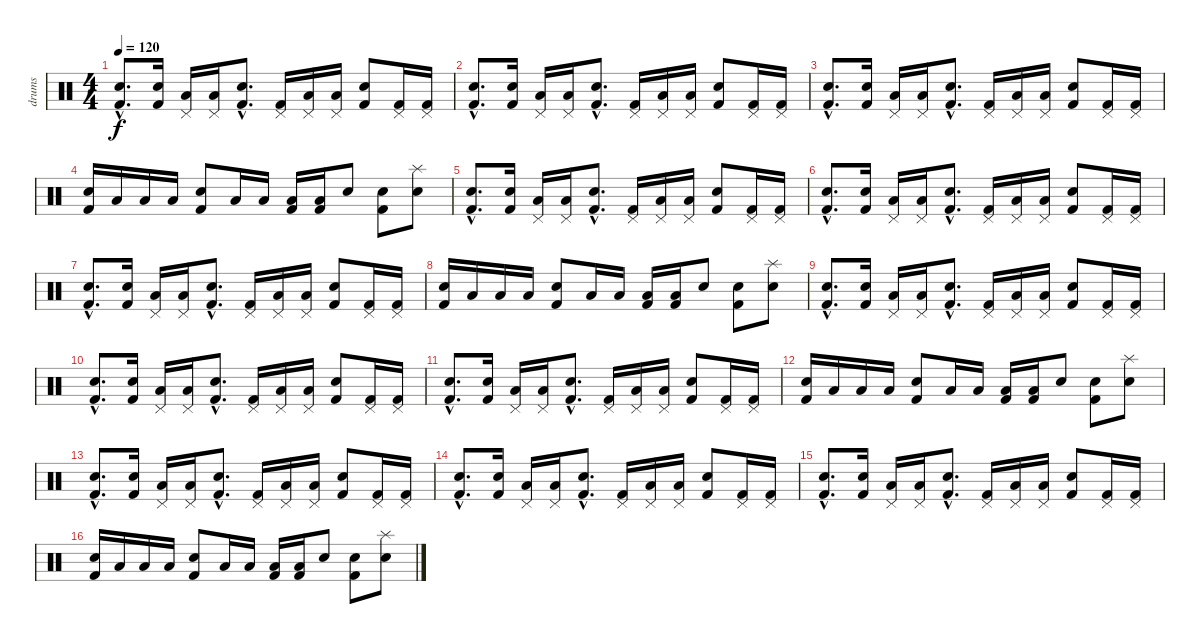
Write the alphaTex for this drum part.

\track ("drums" "drums") {instrument percussion}
\staff {score}
\articulation defaults
\ts (4 4)
\tempo 120
\clef neutral
\ks c
("Electric Snare (hit)"{hac} "Kick (hit) 2"{hac}).8{d dy f} ("Electric Snare (hit)" "Kick (hit) 2").16 ("Pedal Hi-Hat (hit)" "Low Tom (hit)").16 ("Pedal Hi-Hat (hit)" "Low Tom (hit)").16 ("Electric Snare (hit)"{hac} "Kick (hit) 2"{hac}).8{d} ("Pedal Hi-Hat (hit)" "Kick (hit) 2").16 ("Pedal Hi-Hat (hit)" "Low Tom (hit)").16 ("Pedal Hi-Hat (hit)" "Low Tom (hit)").16 ("Electric Snare (hit)" "Kick (hit) 2").8 ("Pedal Hi-Hat (hit)" "Kick (hit) 2").16 ("Pedal Hi-Hat (hit)" "Kick (hit) 2").16 |
("Electric Snare (hit)"{hac} "Kick (hit) 2"{hac}).8{d} ("Electric Snare (hit)" "Kick (hit) 2").16 ("Pedal Hi-Hat (hit)" "Low Tom (hit)").16 ("Pedal Hi-Hat (hit)" "Low Tom (hit)").16 ("Electric Snare (hit)"{hac} "Kick (hit) 2"{hac}).8{d} ("Pedal Hi-Hat (hit)" "Kick (hit) 2").16 ("Pedal Hi-Hat (hit)" "Low Tom (hit)").16 ("Pedal Hi-Hat (hit)" "Low Tom (hit)").16 ("Electric Snare (hit)" "Kick (hit) 2").8 ("Pedal Hi-Hat (hit)" "Kick (hit) 2").16 ("Pedal Hi-Hat (hit)" "Kick (hit) 2").16 |
("Electric Snare (hit)"{hac} "Kick (hit) 2"{hac}).8{d} ("Electric Snare (hit)" "Kick (hit) 2").16 ("Pedal Hi-Hat (hit)" "Low Tom (hit)").16 ("Pedal Hi-Hat (hit)" "Low Tom (hit)").16 ("Electric Snare (hit)"{hac} "Kick (hit) 2"{hac}).8{d} ("Pedal Hi-Hat (hit)" "Kick (hit) 2").16 ("Pedal Hi-Hat (hit)" "Low Tom (hit)").16 ("Pedal Hi-Hat (hit)" "Low Tom (hit)").16 ("Electric Snare (hit)" "Kick (hit) 2").8 ("Pedal Hi-Hat (hit)" "Kick (hit) 2").16 ("Pedal Hi-Hat (hit)" "Kick (hit) 2").16 |
("Electric Snare (hit)" "Kick (hit) 2").16 "Low Tom (hit)".16 "Low Tom (hit)".16 "Low Tom (hit)".16 ("Electric Snare (hit)" "Kick (hit) 2").8 "Low Tom (hit)".16 "Low Tom (hit)".16 ("Low Tom (hit)" "Kick (hit) 2").16 ("Low Tom (hit)" "Kick (hit) 2").16 "Electric Snare (hit)".8 ("Electric Snare (hit)" "Kick (hit) 2").8 ("Splash (hit)" "Electric Snare (hit)").8 |
("Electric Snare (hit)"{hac} "Kick (hit) 2"{hac}).8{d} ("Electric Snare (hit)" "Kick (hit) 2").16 ("Pedal Hi-Hat (hit)" "Low Tom (hit)").16 ("Pedal Hi-Hat (hit)" "Low Tom (hit)").16 ("Electric Snare (hit)"{hac} "Kick (hit) 2"{hac}).8{d} ("Pedal Hi-Hat (hit)" "Kick (hit) 2").16 ("Pedal Hi-Hat (hit)" "Low Tom (hit)").16 ("Pedal Hi-Hat (hit)" "Low Tom (hit)").16 ("Electric Snare (hit)" "Kick (hit) 2").8 ("Pedal Hi-Hat (hit)" "Kick (hit) 2").16 ("Pedal Hi-Hat (hit)" "Kick (hit) 2").16 |
("Electric Snare (hit)"{hac} "Kick (hit) 2"{hac}).8{d} ("Electric Snare (hit)" "Kick (hit) 2").16 ("Pedal Hi-Hat (hit)" "Low Tom (hit)").16 ("Pedal Hi-Hat (hit)" "Low Tom (hit)").16 ("Electric Snare (hit)"{hac} "Kick (hit) 2"{hac}).8{d} ("Pedal Hi-Hat (hit)" "Kick (hit) 2").16 ("Pedal Hi-Hat (hit)" "Low Tom (hit)").16 ("Pedal Hi-Hat (hit)" "Low Tom (hit)").16 ("Electric Snare (hit)" "Kick (hit) 2").8 ("Pedal Hi-Hat (hit)" "Kick (hit) 2").16 ("Pedal Hi-Hat (hit)" "Kick (hit) 2").16 |
("Electric Snare (hit)"{hac} "Kick (hit) 2"{hac}).8{d} ("Electric Snare (hit)" "Kick (hit) 2").16 ("Pedal Hi-Hat (hit)" "Low Tom (hit)").16 ("Pedal Hi-Hat (hit)" "Low Tom (hit)").16 ("Electric Snare (hit)"{hac} "Kick (hit) 2"{hac}).8{d} ("Pedal Hi-Hat (hit)" "Kick (hit) 2").16 ("Pedal Hi-Hat (hit)" "Low Tom (hit)").16 ("Pedal Hi-Hat (hit)" "Low Tom (hit)").16 ("Electric Snare (hit)" "Kick (hit) 2").8 ("Pedal Hi-Hat (hit)" "Kick (hit) 2").16 ("Pedal Hi-Hat (hit)" "Kick (hit) 2").16 |
("Electric Snare (hit)" "Kick (hit) 2").16 "Low Tom (hit)".16 "Low Tom (hit)".16 "Low Tom (hit)".16 ("Electric Snare (hit)" "Kick (hit) 2").8 "Low Tom (hit)".16 "Low Tom (hit)".16 ("Low Tom (hit)" "Kick (hit) 2").16 ("Low Tom (hit)" "Kick (hit) 2").16 "Electric Snare (hit)".8 ("Electric Snare (hit)" "Kick (hit) 2").8 ("Splash (hit)" "Electric Snare (hit)").8 |
("Electric Snare (hit)"{hac} "Kick (hit) 2"{hac}).8{d} ("Electric Snare (hit)" "Kick (hit) 2").16 ("Pedal Hi-Hat (hit)" "Low Tom (hit)").16 ("Pedal Hi-Hat (hit)" "Low Tom (hit)").16 ("Electric Snare (hit)"{hac} "Kick (hit) 2"{hac}).8{d} ("Pedal Hi-Hat (hit)" "Kick (hit) 2").16 ("Pedal Hi-Hat (hit)" "Low Tom (hit)").16 ("Pedal Hi-Hat (hit)" "Low Tom (hit)").16 ("Electric Snare (hit)" "Kick (hit) 2").8 ("Pedal Hi-Hat (hit)" "Kick (hit) 2").16 ("Pedal Hi-Hat (hit)" "Kick (hit) 2").16 |
("Electric Snare (hit)"{hac} "Kick (hit) 2"{hac}).8{d} ("Electric Snare (hit)" "Kick (hit) 2").16 ("Pedal Hi-Hat (hit)" "Low Tom (hit)").16 ("Pedal Hi-Hat (hit)" "Low Tom (hit)").16 ("Electric Snare (hit)"{hac} "Kick (hit) 2"{hac}).8{d} ("Pedal Hi-Hat (hit)" "Kick (hit) 2").16 ("Pedal Hi-Hat (hit)" "Low Tom (hit)").16 ("Pedal Hi-Hat (hit)" "Low Tom (hit)").16 ("Electric Snare (hit)" "Kick (hit) 2").8 ("Pedal Hi-Hat (hit)" "Kick (hit) 2").16 ("Pedal Hi-Hat (hit)" "Kick (hit) 2").16 |
("Electric Snare (hit)"{hac} "Kick (hit) 2"{hac}).8{d} ("Electric Snare (hit)" "Kick (hit) 2").16 ("Pedal Hi-Hat (hit)" "Low Tom (hit)").16 ("Pedal Hi-Hat (hit)" "Low Tom (hit)").16 ("Electric Snare (hit)"{hac} "Kick (hit) 2"{hac}).8{d} ("Pedal Hi-Hat (hit)" "Kick (hit) 2").16 ("Pedal Hi-Hat (hit)" "Low Tom (hit)").16 ("Pedal Hi-Hat (hit)" "Low Tom (hit)").16 ("Electric Snare (hit)" "Kick (hit) 2").8 ("Pedal Hi-Hat (hit)" "Kick (hit) 2").16 ("Pedal Hi-Hat (hit)" "Kick (hit) 2").16 |
("Electric Snare (hit)" "Kick (hit) 2").16 "Low Tom (hit)".16 "Low Tom (hit)".16 "Low Tom (hit)".16 ("Electric Snare (hit)" "Kick (hit) 2").8 "Low Tom (hit)".16 "Low Tom (hit)".16 ("Low Tom (hit)" "Kick (hit) 2").16 ("Low Tom (hit)" "Kick (hit) 2").16 "Electric Snare (hit)".8 ("Electric Snare (hit)" "Kick (hit) 2").8 ("Splash (hit)" "Electric Snare (hit)").8 |
("Electric Snare (hit)"{hac} "Kick (hit) 2"{hac}).8{d} ("Electric Snare (hit)" "Kick (hit) 2").16 ("Pedal Hi-Hat (hit)" "Low Tom (hit)").16 ("Pedal Hi-Hat (hit)" "Low Tom (hit)").16 ("Electric Snare (hit)"{hac} "Kick (hit) 2"{hac}).8{d} ("Pedal Hi-Hat (hit)" "Kick (hit) 2").16 ("Pedal Hi-Hat (hit)" "Low Tom (hit)").16 ("Pedal Hi-Hat (hit)" "Low Tom (hit)").16 ("Electric Snare (hit)" "Kick (hit) 2").8 ("Pedal Hi-Hat (hit)" "Kick (hit) 2").16 ("Pedal Hi-Hat (hit)" "Kick (hit) 2").16 |
("Electric Snare (hit)"{hac} "Kick (hit) 2"{hac}).8{d} ("Electric Snare (hit)" "Kick (hit) 2").16 ("Pedal Hi-Hat (hit)" "Low Tom (hit)").16 ("Pedal Hi-Hat (hit)" "Low Tom (hit)").16 ("Electric Snare (hit)"{hac} "Kick (hit) 2"{hac}).8{d} ("Pedal Hi-Hat (hit)" "Kick (hit) 2").16 ("Pedal Hi-Hat (hit)" "Low Tom (hit)").16 ("Pedal Hi-Hat (hit)" "Low Tom (hit)").16 ("Electric Snare (hit)" "Kick (hit) 2").8 ("Pedal Hi-Hat (hit)" "Kick (hit) 2").16 ("Pedal Hi-Hat (hit)" "Kick (hit) 2").16 |
("Electric Snare (hit)"{hac} "Kick (hit) 2"{hac}).8{d} ("Electric Snare (hit)" "Kick (hit) 2").16 ("Pedal Hi-Hat (hit)" "Low Tom (hit)").16 ("Pedal Hi-Hat (hit)" "Low Tom (hit)").16 ("Electric Snare (hit)"{hac} "Kick (hit) 2"{hac}).8{d} ("Pedal Hi-Hat (hit)" "Kick (hit) 2").16 ("Pedal Hi-Hat (hit)" "Low Tom (hit)").16 ("Pedal Hi-Hat (hit)" "Low Tom (hit)").16 ("Electric Snare (hit)" "Kick (hit) 2").8 ("Pedal Hi-Hat (hit)" "Kick (hit) 2").16 ("Pedal Hi-Hat (hit)" "Kick (hit) 2").16 |
("Electric Snare (hit)" "Kick (hit) 2").16 "Low Tom (hit)".16 "Low Tom (hit)".16 "Low Tom (hit)".16 ("Electric Snare (hit)" "Kick (hit) 2").8 "Low Tom (hit)".16 "Low Tom (hit)".16 ("Low Tom (hit)" "Kick (hit) 2").16 ("Low Tom (hit)" "Kick (hit) 2").16 "Electric Snare (hit)".8 ("Electric Snare (hit)" "Kick (hit) 2").8 ("Splash (hit)" "Electric Snare (hit)").8
